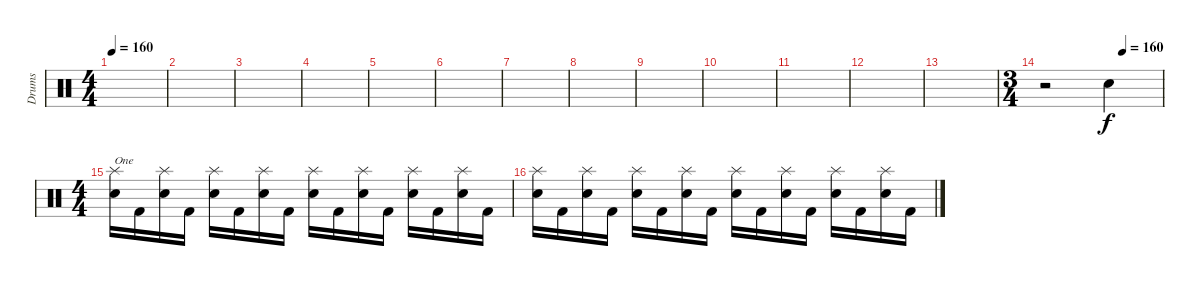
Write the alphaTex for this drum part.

\track ("Drums" "Drums") {instrument percussion}
\staff {score}
\articulation defaults
\ts (4 4)
\tempo 160
\clef neutral
\ks c
|
|
|
|
|
|
|
|
|
|
|
|
|
\ts (3 4)
\tempo (160 0.6666666666666666)
r.2 "Snare (hit) 2".4 |
\ts (4 4)
("Splash (hit)" "Snare (hit) 2").16{txt "One"} "Kick (hit) 2".16 ("Splash (hit)" "Snare (hit) 2").16 "Kick (hit) 2".16 ("Splash (hit)" "Snare (hit) 2").16 "Kick (hit) 2".16 ("Splash (hit)" "Snare (hit) 2").16 "Kick (hit) 2".16 ("Splash (hit)" "Snare (hit) 2").16 "Kick (hit) 2".16 ("Splash (hit)" "Snare (hit) 2").16 "Kick (hit) 2".16 ("Splash (hit)" "Snare (hit) 2").16 "Kick (hit) 2".16 ("Splash (hit)" "Snare (hit) 2").16 "Kick (hit) 2".16 |
("Splash (hit)" "Snare (hit) 2").16 "Kick (hit) 2".16 ("Splash (hit)" "Snare (hit) 2").16 "Kick (hit) 2".16 ("Splash (hit)" "Snare (hit) 2").16 "Kick (hit) 2".16 ("Splash (hit)" "Snare (hit) 2").16 "Kick (hit) 2".16 ("Splash (hit)" "Snare (hit) 2").16 "Kick (hit) 2".16 ("Splash (hit)" "Snare (hit) 2").16 "Kick (hit) 2".16 ("Splash (hit)" "Snare (hit) 2").16 "Kick (hit) 2".16 ("Splash (hit)" "Snare (hit) 2").16 "Kick (hit) 2".16
